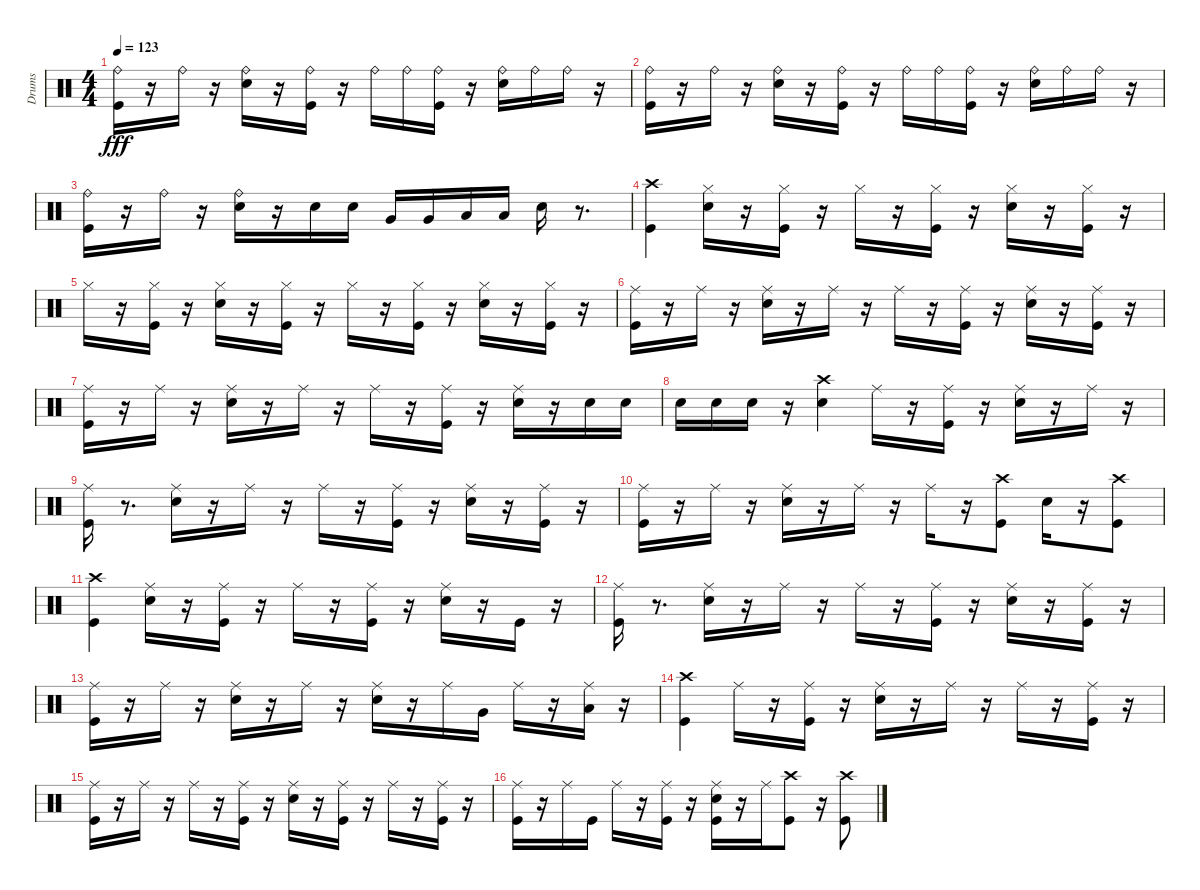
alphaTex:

\track ("Drums" "Drums") {instrument percussion}
\staff {score}
\articulation defaults
\ts (4 4)
\tempo 123
\clef neutral
\ks c
("Ride (bell)" "Kick (hit)").16{dy fff} r.16 "Ride (bell)".16 r.16 ("Ride (bell)" "Snare (hit) 2").16 r.16 ("Ride (bell)" "Kick (hit)").16 r.16 "Ride (bell)".16 "Ride (bell)".16 ("Ride (bell)" "Kick (hit)").16 r.16 ("Ride (bell)" "Snare (hit) 2").16 "Ride (bell)".16 "Ride (bell)".16 r.16 |
("Ride (bell)" "Kick (hit)").16 r.16 "Ride (bell)".16 r.16 ("Ride (bell)" "Snare (hit) 2").16 r.16 ("Ride (bell)" "Kick (hit)").16 r.16 "Ride (bell)".16 "Ride (bell)".16 ("Ride (bell)" "Kick (hit)").16 r.16 ("Ride (bell)" "Snare (hit) 2").16 "Ride (bell)".16 "Ride (bell)".16 r.16 |
("Kick (hit)" "Ride (bell)").16 r.16 "Ride (bell)".16 r.16 ("Snare (hit) 2" "Ride (bell)").16 r.16 "Snare (hit) 2".16 "Snare (hit) 2".16 "Very Low Tom (hit)".16 "Very Low Tom (hit)".16 "Low Floor Tom (hit)".16 "Low Floor Tom (hit)".16 "Snare (hit) 2".16 r.8{d} |
("Kick (hit)" "Crash high (hit)").4 ("Snare (hit) 2" "Hi-Hat (closed)").16 r.16 ("Kick (hit)" "Hi-Hat (closed)").16 r.16 "Hi-Hat (closed)".16 r.16 ("Kick (hit)" "Hi-Hat (closed)").16 r.16 ("Snare (hit) 2" "Hi-Hat (closed)").16 r.16 ("Kick (hit)" "Hi-Hat (closed)").16 r.16 |
"Hi-Hat (closed)".16 r.16 ("Hi-Hat (closed)" "Kick (hit)").16 r.16 ("Hi-Hat (closed)" "Snare (hit) 2").16 r.16 ("Hi-Hat (closed)" "Kick (hit)").16 r.16 "Hi-Hat (closed)".16 r.16 ("Hi-Hat (closed)" "Kick (hit)").16 r.16 ("Hi-Hat (closed)" "Snare (hit) 2").16 r.16 ("Hi-Hat (closed)" "Kick (hit)").16 r.16 |
("Kick (hit)" "Ride (middle)").16 r.16 "Ride (middle)".16 r.16 ("Snare (hit) 2" "Ride (middle)").16 r.16 "Ride (middle)".16 r.16 "Ride (middle)".16 r.16 ("Kick (hit)" "Ride (middle)").16 r.16 ("Snare (hit) 2" "Ride (middle)").16 r.16 ("Kick (hit)" "Ride (middle)").16 r.16 |
("Ride (middle)" "Kick (hit)").16 r.16 "Ride (middle)".16 r.16 ("Ride (middle)" "Snare (hit) 2").16 r.16 "Ride (middle)".16 r.16 "Ride (middle)".16 r.16 ("Ride (middle)" "Kick (hit)").16 r.16 ("Ride (middle)" "Snare (hit) 2").16 r.16 "Snare (hit) 2".16 "Snare (hit) 2".16 |
"Snare (hit) 2".16 "Snare (hit) 2".16 "Snare (hit) 2".16 r.16 ("Snare (hit) 2" "Crash high (hit)").4 "Ride (middle)".16 r.16 ("Kick (hit)" "Ride (middle)").16 r.16 ("Snare (hit) 2" "Ride (middle)").16 r.16 "Ride (middle)".16 r.16 |
("Ride (middle)" "Kick (hit)").16 r.8{d} ("Ride (middle)" "Snare (hit) 2").16 r.16 "Ride (middle)".16 r.16 "Ride (middle)".16 r.16 ("Ride (middle)" "Kick (hit)").16 r.16 ("Ride (middle)" "Snare (hit) 2").16 r.16 ("Ride (middle)" "Kick (hit)").16 r.16 |
("Kick (hit)" "Ride (middle)").16 r.16 "Ride (middle)".16 r.16 ("Snare (hit) 2" "Ride (middle)").16 r.16 "Ride (middle)".16 r.16 "Ride (middle)".16 r.16 ("Kick (hit)" "Crash high (hit)").8 "Snare (hit) 2".16 r.16 ("Kick (hit)" "Crash high (hit)").8 |
("Kick (hit)" "Crash high (hit)").4 ("Ride (middle)" "Snare (hit) 2").16 r.16 ("Ride (middle)" "Kick (hit)").16 r.16 "Ride (middle)".16 r.16 ("Ride (middle)" "Kick (hit)").16 r.16 ("Ride (middle)" "Snare (hit) 2").16 r.16 "Kick (hit)".16 r.16 |
("Kick (hit)" "Ride (middle)").16 r.8{d} ("Snare (hit) 2" "Ride (middle)").16 r.16 "Ride (middle)".16 r.16 "Ride (middle)".16 r.16 ("Kick (hit)" "Ride (middle)").16 r.16 ("Snare (hit) 2" "Ride (middle)").16 r.16 ("Kick (hit)" "Ride (middle)").16 r.16 |
("Ride (middle)" "Kick (hit)").16 r.16 "Ride (middle)".16 r.16 ("Ride (middle)" "Snare (hit) 2").16 r.16 "Ride (middle)".16 r.16 ("Ride (middle)" "Snare (hit) 2").16 r.16 "Ride (middle)".16 "Very Low Tom (hit)".16 "Ride (middle)".16 r.16 ("Ride (middle)" "Low Floor Tom (hit)").16 r.16 |
("Kick (hit)" "Crash high (hit)").4 "Ride (middle)".16 r.16 ("Kick (hit)" "Ride (middle)").16 r.16 ("Snare (hit) 2" "Ride (middle)").16 r.16 "Ride (middle)".16 r.16 "Ride (middle)".16 r.16 ("Kick (hit)" "Ride (middle)").16 r.16 |
("Ride (middle)" "Kick (hit)").16 r.16 "Ride (middle)".16 r.16 "Ride (middle)".16 r.16 ("Ride (middle)" "Kick (hit)").16 r.16 ("Ride (middle)" "Snare (hit) 2").16 r.16 ("Ride (middle)" "Kick (hit)").16 r.16 "Ride (middle)".16 r.16 ("Ride (middle)" "Kick (hit)").16 r.16 |
("Kick (hit)" "Ride (middle)").16 r.16 "Ride (middle)".16 "Kick (hit)".16 "Ride (middle)".16 r.16 ("Kick (hit)" "Ride (middle)").16 r.16 ("Kick (hit)" "Snare (hit) 2" "Ride (middle)").16 r.16 "Ride (middle)".16 ("Kick (hit)" "Crash high (hit)").8 r.16 ("Kick (hit)" "Crash high (hit)").8
